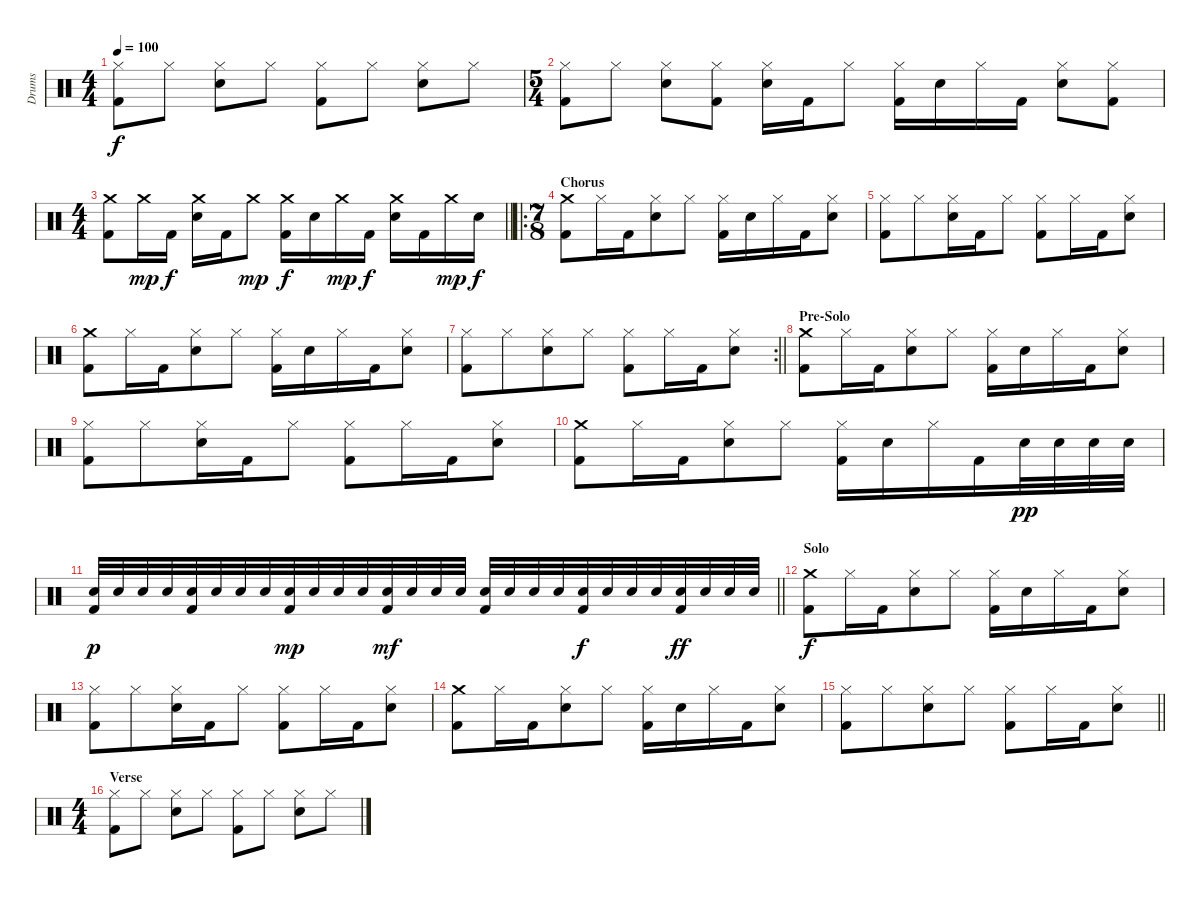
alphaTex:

\track ("Drums" "Drums") {instrument percussion}
\staff {score}
\articulation defaults
\ts (4 4)
\tempo 100
\clef neutral
\ks c
("Hi-Hat (closed)" "Kick (hit) 2").8{dy f} "Hi-Hat (closed)".8 ("Hi-Hat (closed)" "Electric Snare (hit)").8 "Hi-Hat (closed)".8 ("Hi-Hat (closed)" "Kick (hit) 2").8 "Hi-Hat (closed)".8 ("Hi-Hat (closed)" "Electric Snare (hit)").8 "Hi-Hat (closed)".8 |
\ts (5 4)
("Hi-Hat (closed)" "Kick (hit) 2").8 "Hi-Hat (closed)".8 ("Hi-Hat (closed)" "Electric Snare (hit)").8 ("Hi-Hat (closed)" "Kick (hit) 2").8 ("Hi-Hat (closed)" "Electric Snare (hit)").16 "Kick (hit) 2".16 "Hi-Hat (closed)".8 ("Hi-Hat (closed)" "Kick (hit) 2").16 "Electric Snare (hit)".16 "Hi-Hat (closed)".16 "Kick (hit) 2".16 ("Hi-Hat (closed)" "Electric Snare (hit)").8 ("Hi-Hat (closed)" "Kick (hit) 2").8 |
\ts (4 4)
\barLineRight lightlight
("Crash medium (hit)" "Kick (hit) 2").8 "Crash medium (hit)".16{dy mp} "Kick (hit) 2".16{dy f} ("Crash medium (hit)" "Electric Snare (hit)").16 "Kick (hit) 2".16 "Crash medium (hit)".8{dy mp} ("Crash medium (hit)" "Kick (hit) 2").16{dy f} "Electric Snare (hit)".16 "Crash medium (hit)".16{dy mp} "Kick (hit) 2".16{dy f} ("Crash medium (hit)" "Electric Snare (hit)").16 "Kick (hit) 2".16 "Crash medium (hit)".16{dy mp} "Electric Snare (hit)".16{dy f} |
\ro
\ts (7 8)
\section ("" "Chorus")
("Crash medium (hit)" "Kick (hit) 2").8 "Hi-Hat (closed)".16 "Kick (hit) 2".16 ("Hi-Hat (closed)" "Electric Snare (hit)").8 "Hi-Hat (closed)".8 ("Hi-Hat (closed)" "Kick (hit) 2").16 "Electric Snare (hit)".16 "Hi-Hat (closed)".16 "Kick (hit) 2".16 ("Hi-Hat (closed)" "Electric Snare (hit)").8 |
("Hi-Hat (closed)" "Kick (hit) 2").8 "Hi-Hat (closed)".8 ("Hi-Hat (closed)" "Electric Snare (hit)").16 "Kick (hit) 2".16 "Hi-Hat (closed)".8 ("Hi-Hat (closed)" "Kick (hit) 2").8 "Hi-Hat (closed)".16 "Kick (hit) 2".16 ("Hi-Hat (closed)" "Electric Snare (hit)").8 |
("Crash medium (hit)" "Kick (hit) 2").8 "Hi-Hat (closed)".16 "Kick (hit) 2".16 ("Hi-Hat (closed)" "Electric Snare (hit)").8 "Hi-Hat (closed)".8 ("Hi-Hat (closed)" "Kick (hit) 2").16 "Electric Snare (hit)".16 "Hi-Hat (closed)".16 "Kick (hit) 2".16 ("Hi-Hat (closed)" "Electric Snare (hit)").8 |
\rc 2
\barLineRight lightlight
("Hi-Hat (closed)" "Kick (hit) 2").8 "Hi-Hat (closed)".8 ("Hi-Hat (closed)" "Electric Snare (hit)").8 "Hi-Hat (closed)".8 ("Hi-Hat (closed)" "Kick (hit) 2").8 "Hi-Hat (closed)".16 "Kick (hit) 2".16 ("Hi-Hat (closed)" "Electric Snare (hit)").8 |
\section ("" "Pre-Solo")
("Crash medium (hit)" "Kick (hit) 2").8 "Hi-Hat (closed)".16 "Kick (hit) 2".16 ("Hi-Hat (closed)" "Electric Snare (hit)").8 "Hi-Hat (closed)".8 ("Hi-Hat (closed)" "Kick (hit) 2").16 "Electric Snare (hit)".16 "Hi-Hat (closed)".16 "Kick (hit) 2".16 ("Hi-Hat (closed)" "Electric Snare (hit)").8 |
("Hi-Hat (closed)" "Kick (hit) 2").8 "Hi-Hat (closed)".8 ("Hi-Hat (closed)" "Electric Snare (hit)").16 "Kick (hit) 2".16 "Hi-Hat (closed)".8 ("Hi-Hat (closed)" "Kick (hit) 2").8 "Hi-Hat (closed)".16 "Kick (hit) 2".16 ("Hi-Hat (closed)" "Electric Snare (hit)").8 |
("Crash medium (hit)" "Kick (hit) 2").8 "Hi-Hat (closed)".16 "Kick (hit) 2".16 ("Hi-Hat (closed)" "Electric Snare (hit)").8 "Hi-Hat (closed)".8 ("Hi-Hat (closed)" "Kick (hit) 2").16 "Electric Snare (hit)".16 "Hi-Hat (closed)".16 "Kick (hit) 2".16 "Electric Snare (hit)".32{dy pp} "Electric Snare (hit)".32 "Electric Snare (hit)".32 "Electric Snare (hit)".32 |
\barLineRight lightlight
("Electric Snare (hit)" "Kick (hit) 2").32{dy p} "Electric Snare (hit)".32 "Electric Snare (hit)".32 "Electric Snare (hit)".32 ("Electric Snare (hit)" "Kick (hit) 2").32 "Electric Snare (hit)".32 "Electric Snare (hit)".32 "Electric Snare (hit)".32 ("Electric Snare (hit)" "Kick (hit) 2").32{dy mp} "Electric Snare (hit)".32 "Electric Snare (hit)".32 "Electric Snare (hit)".32 ("Electric Snare (hit)" "Kick (hit) 2").32{dy mf} "Electric Snare (hit)".32 "Electric Snare (hit)".32 "Electric Snare (hit)".32 ("Electric Snare (hit)" "Kick (hit) 2").32 "Electric Snare (hit)".32 "Electric Snare (hit)".32 "Electric Snare (hit)".32 ("Electric Snare (hit)" "Kick (hit) 2").32{dy f} "Electric Snare (hit)".32 "Electric Snare (hit)".32 "Electric Snare (hit)".32 ("Electric Snare (hit)" "Kick (hit) 2").32{dy ff} "Electric Snare (hit)".32 "Electric Snare (hit)".32 "Electric Snare (hit)".32 |
\section ("" "Solo")
("Crash medium (hit)" "Kick (hit) 2").8{dy f} "Hi-Hat (closed)".16 "Kick (hit) 2".16 ("Hi-Hat (closed)" "Electric Snare (hit)").8 "Hi-Hat (closed)".8 ("Hi-Hat (closed)" "Kick (hit) 2").16 "Electric Snare (hit)".16 "Hi-Hat (closed)".16 "Kick (hit) 2".16 ("Hi-Hat (closed)" "Electric Snare (hit)").8 |
("Hi-Hat (closed)" "Kick (hit) 2").8 "Hi-Hat (closed)".8 ("Hi-Hat (closed)" "Electric Snare (hit)").16 "Kick (hit) 2".16 "Hi-Hat (closed)".8 ("Hi-Hat (closed)" "Kick (hit) 2").8 "Hi-Hat (closed)".16 "Kick (hit) 2".16 ("Hi-Hat (closed)" "Electric Snare (hit)").8 |
("Crash medium (hit)" "Kick (hit) 2").8 "Hi-Hat (closed)".16 "Kick (hit) 2".16 ("Hi-Hat (closed)" "Electric Snare (hit)").8 "Hi-Hat (closed)".8 ("Hi-Hat (closed)" "Kick (hit) 2").16 "Electric Snare (hit)".16 "Hi-Hat (closed)".16 "Kick (hit) 2".16 ("Hi-Hat (closed)" "Electric Snare (hit)").8 |
\barLineRight lightlight
("Hi-Hat (closed)" "Kick (hit) 2").8 "Hi-Hat (closed)".8 ("Hi-Hat (closed)" "Electric Snare (hit)").8 "Hi-Hat (closed)".8 ("Hi-Hat (closed)" "Kick (hit) 2").8 "Hi-Hat (closed)".16 "Kick (hit) 2".16 ("Hi-Hat (closed)" "Electric Snare (hit)").8 |
\ts (4 4)
\section ("" "Verse")
("Hi-Hat (closed)" "Kick (hit) 2").8 "Hi-Hat (closed)".8 ("Hi-Hat (closed)" "Electric Snare (hit)").8 "Hi-Hat (closed)".8 ("Hi-Hat (closed)" "Kick (hit) 2").8 "Hi-Hat (closed)".8 ("Hi-Hat (closed)" "Electric Snare (hit)").8 "Hi-Hat (closed)".8
